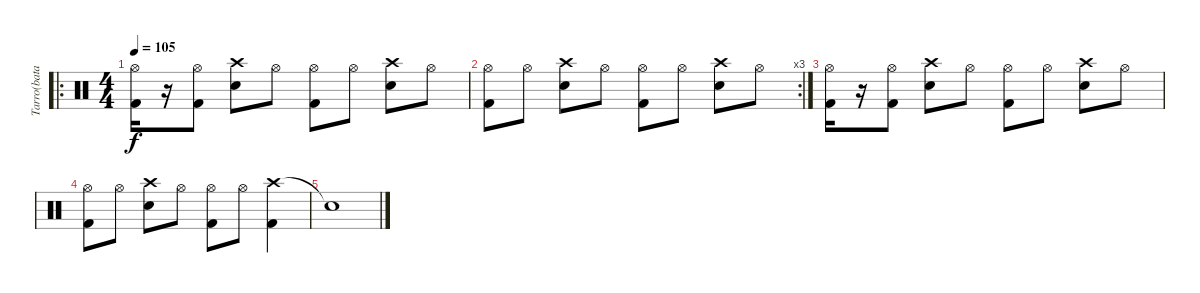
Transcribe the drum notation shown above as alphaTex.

\track ("Tarro(bataca)" "Tarro(bata") {instrument percussion}
\staff {score}
\articulation defaults
\ro
\ts (4 4)
\tempo 105
\clef neutral
\ks c
("Hi-Hat (open)" "Kick (hit) 2").16{dy f} r.16 ("Hi-Hat (open)" "Kick (hit) 2").8 ("Crash high (hit)" "Snare (hit) 2").8 "Hi-Hat (open)".8 ("Hi-Hat (open)" "Kick (hit) 2").8 "Hi-Hat (open)".8 ("Crash high (hit)" "Snare (hit) 2").8 "Hi-Hat (open)".8 |
\rc 3
("Hi-Hat (open)" "Kick (hit) 2").8 "Hi-Hat (open)".8 ("Crash high (hit)" "Snare (hit) 2").8 "Hi-Hat (open)".8 ("Hi-Hat (open)" "Kick (hit) 2").8 "Hi-Hat (open)".8 ("Crash high (hit)" "Snare (hit) 2").8 "Hi-Hat (open)".8 |
("Hi-Hat (open)" "Kick (hit) 2").16 r.16 ("Hi-Hat (open)" "Kick (hit) 2").8 ("Crash high (hit)" "Snare (hit) 2").8 "Hi-Hat (open)".8 ("Hi-Hat (open)" "Kick (hit) 2").8 "Hi-Hat (open)".8 ("Crash high (hit)" "Snare (hit) 2").8 "Hi-Hat (open)".8 |
("Hi-Hat (open)" "Kick (hit) 2").8 "Hi-Hat (open)".8 ("Crash high (hit)" "Snare (hit) 2").8 "Hi-Hat (open)".8 ("Hi-Hat (open)" "Kick (hit) 2").8 "Hi-Hat (open)".8 ("Crash high (hit)" "Kick (hit) 2").4 |
"Snare (hit)"{t}.1
